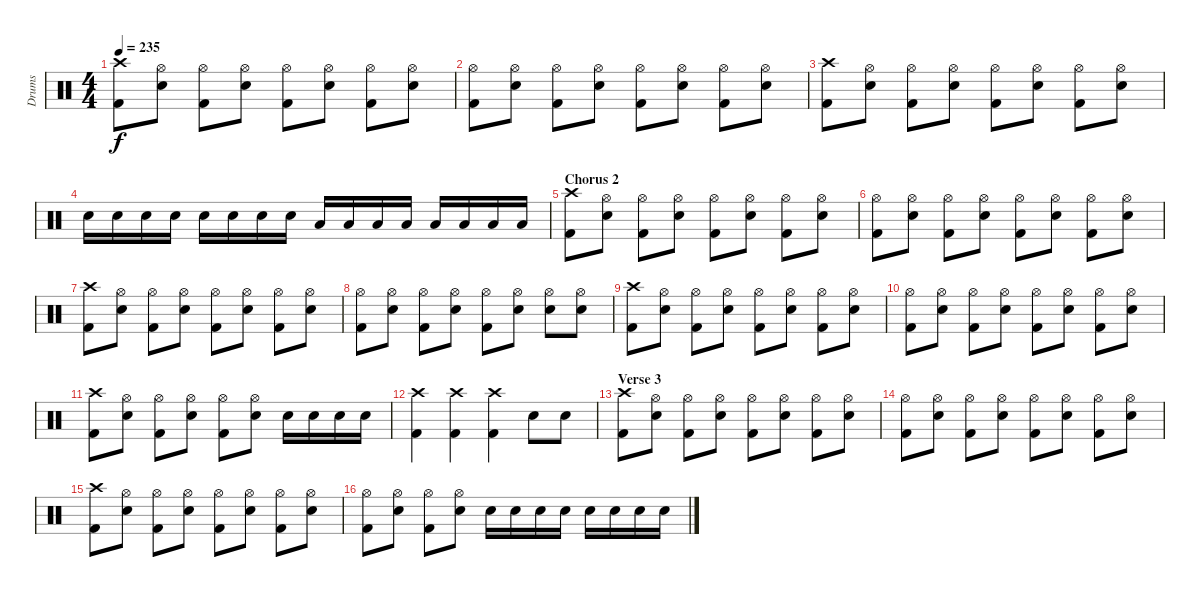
\track ("Drums" "Drums") {instrument percussion}
\staff {score}
\articulation defaults
\ts (4 4)
\tempo 235
\clef neutral
\ks c
("Crash high (hit)" "Kick (hit) 2").8{dy f} ("Hi-Hat (open)" "Electric Snare (hit)").8 ("Hi-Hat (open)" "Kick (hit) 2").8 ("Hi-Hat (open)" "Electric Snare (hit)").8 ("Hi-Hat (open)" "Kick (hit) 2").8 ("Hi-Hat (open)" "Electric Snare (hit)").8 ("Hi-Hat (open)" "Kick (hit) 2").8 ("Hi-Hat (open)" "Electric Snare (hit)").8 |
("Hi-Hat (open)" "Kick (hit) 2").8 ("Hi-Hat (open)" "Electric Snare (hit)").8 ("Hi-Hat (open)" "Kick (hit) 2").8 ("Hi-Hat (open)" "Electric Snare (hit)").8 ("Hi-Hat (open)" "Kick (hit) 2").8 ("Hi-Hat (open)" "Electric Snare (hit)").8 ("Hi-Hat (open)" "Kick (hit) 2").8 ("Hi-Hat (open)" "Electric Snare (hit)").8 |
("Crash high (hit)" "Kick (hit) 2").8 ("Hi-Hat (open)" "Electric Snare (hit)").8 ("Hi-Hat (open)" "Kick (hit) 2").8 ("Hi-Hat (open)" "Electric Snare (hit)").8 ("Hi-Hat (open)" "Kick (hit) 2").8 ("Hi-Hat (open)" "Electric Snare (hit)").8 ("Hi-Hat (open)" "Kick (hit) 2").8 ("Hi-Hat (open)" "Electric Snare (hit)").8 |
"Electric Snare (hit)".16 "Electric Snare (hit)".16 "Electric Snare (hit)".16 "Electric Snare (hit)".16 "Electric Snare (hit)".16 "Electric Snare (hit)".16 "Electric Snare (hit)".16 "Electric Snare (hit)".16 "Low Floor Tom (hit)".16 "Low Floor Tom (hit)".16 "Low Floor Tom (hit)".16 "Low Floor Tom (hit)".16 "Low Floor Tom (hit)".16 "Low Floor Tom (hit)".16 "Low Floor Tom (hit)".16 "Low Floor Tom (hit)".16 |
\section ("" "Chorus 2")
("Crash high (hit)" "Kick (hit) 2").8 ("Hi-Hat (open)" "Electric Snare (hit)").8 ("Hi-Hat (open)" "Kick (hit) 2").8 ("Hi-Hat (open)" "Electric Snare (hit)").8 ("Hi-Hat (open)" "Kick (hit) 2").8 ("Hi-Hat (open)" "Electric Snare (hit)").8 ("Hi-Hat (open)" "Kick (hit) 2").8 ("Hi-Hat (open)" "Electric Snare (hit)").8 |
("Hi-Hat (open)" "Kick (hit) 2").8 ("Hi-Hat (open)" "Electric Snare (hit)").8 ("Hi-Hat (open)" "Kick (hit) 2").8 ("Hi-Hat (open)" "Electric Snare (hit)").8 ("Hi-Hat (open)" "Kick (hit) 2").8 ("Hi-Hat (open)" "Electric Snare (hit)").8 ("Hi-Hat (open)" "Kick (hit) 2").8 ("Hi-Hat (open)" "Electric Snare (hit)").8 |
("Crash high (hit)" "Kick (hit) 2").8 ("Hi-Hat (open)" "Electric Snare (hit)").8 ("Hi-Hat (open)" "Kick (hit) 2").8 ("Hi-Hat (open)" "Electric Snare (hit)").8 ("Hi-Hat (open)" "Kick (hit) 2").8 ("Hi-Hat (open)" "Electric Snare (hit)").8 ("Hi-Hat (open)" "Kick (hit) 2").8 ("Hi-Hat (open)" "Electric Snare (hit)").8 |
("Hi-Hat (open)" "Kick (hit) 2").8 ("Hi-Hat (open)" "Electric Snare (hit)").8 ("Hi-Hat (open)" "Kick (hit) 2").8 ("Hi-Hat (open)" "Electric Snare (hit)").8 ("Hi-Hat (open)" "Kick (hit) 2").8 ("Hi-Hat (open)" "Electric Snare (hit)").8 ("Hi-Hat (open)" "Electric Snare (hit)").8 ("Hi-Hat (open)" "Electric Snare (hit)").8 |
("Crash high (hit)" "Kick (hit) 2").8 ("Hi-Hat (open)" "Electric Snare (hit)").8 ("Hi-Hat (open)" "Kick (hit) 2").8 ("Hi-Hat (open)" "Electric Snare (hit)").8 ("Hi-Hat (open)" "Kick (hit) 2").8 ("Hi-Hat (open)" "Electric Snare (hit)").8 ("Hi-Hat (open)" "Kick (hit) 2").8 ("Hi-Hat (open)" "Electric Snare (hit)").8 |
("Hi-Hat (open)" "Kick (hit) 2").8 ("Hi-Hat (open)" "Electric Snare (hit)").8 ("Hi-Hat (open)" "Kick (hit) 2").8 ("Hi-Hat (open)" "Electric Snare (hit)").8 ("Hi-Hat (open)" "Kick (hit) 2").8 ("Hi-Hat (open)" "Electric Snare (hit)").8 ("Hi-Hat (open)" "Kick (hit) 2").8 ("Hi-Hat (open)" "Electric Snare (hit)").8 |
("Crash high (hit)" "Kick (hit) 2").8 ("Hi-Hat (open)" "Electric Snare (hit)").8 ("Hi-Hat (open)" "Kick (hit) 2").8 ("Hi-Hat (open)" "Electric Snare (hit)").8 ("Hi-Hat (open)" "Kick (hit) 2").8 ("Hi-Hat (open)" "Electric Snare (hit)").8 "Electric Snare (hit)".16 "Electric Snare (hit)".16 "Electric Snare (hit)".16 "Electric Snare (hit)".16 |
("Crash high (hit)" "Kick (hit) 2").4 ("Crash high (hit)" "Kick (hit) 2").4 ("Crash high (hit)" "Kick (hit) 2").4 "Electric Snare (hit)".8 "Electric Snare (hit)".8 |
\section ("" "Verse 3")
("Crash high (hit)" "Kick (hit) 2").8 ("Hi-Hat (open)" "Electric Snare (hit)").8 ("Hi-Hat (open)" "Kick (hit) 2").8 ("Hi-Hat (open)" "Electric Snare (hit)").8 ("Hi-Hat (open)" "Kick (hit) 2").8 ("Hi-Hat (open)" "Electric Snare (hit)").8 ("Hi-Hat (open)" "Kick (hit) 2").8 ("Hi-Hat (open)" "Electric Snare (hit)").8 |
("Hi-Hat (open)" "Kick (hit) 2").8 ("Hi-Hat (open)" "Electric Snare (hit)").8 ("Hi-Hat (open)" "Kick (hit) 2").8 ("Hi-Hat (open)" "Electric Snare (hit)").8 ("Hi-Hat (open)" "Kick (hit) 2").8 ("Hi-Hat (open)" "Electric Snare (hit)").8 ("Hi-Hat (open)" "Kick (hit) 2").8 ("Hi-Hat (open)" "Electric Snare (hit)").8 |
("Crash high (hit)" "Kick (hit) 2").8 ("Hi-Hat (open)" "Electric Snare (hit)").8 ("Hi-Hat (open)" "Kick (hit) 2").8 ("Hi-Hat (open)" "Electric Snare (hit)").8 ("Hi-Hat (open)" "Kick (hit) 2").8 ("Hi-Hat (open)" "Electric Snare (hit)").8 ("Hi-Hat (open)" "Kick (hit) 2").8 ("Hi-Hat (open)" "Electric Snare (hit)").8 |
("Hi-Hat (open)" "Kick (hit) 2").8 ("Hi-Hat (open)" "Electric Snare (hit)").8 ("Hi-Hat (open)" "Kick (hit) 2").8 ("Hi-Hat (open)" "Electric Snare (hit)").8 "Electric Snare (hit)".16 "Electric Snare (hit)".16 "Electric Snare (hit)".16 "Electric Snare (hit)".16 "Electric Snare (hit)".16 "Electric Snare (hit)".16 "Electric Snare (hit)".16 "Electric Snare (hit)".16
